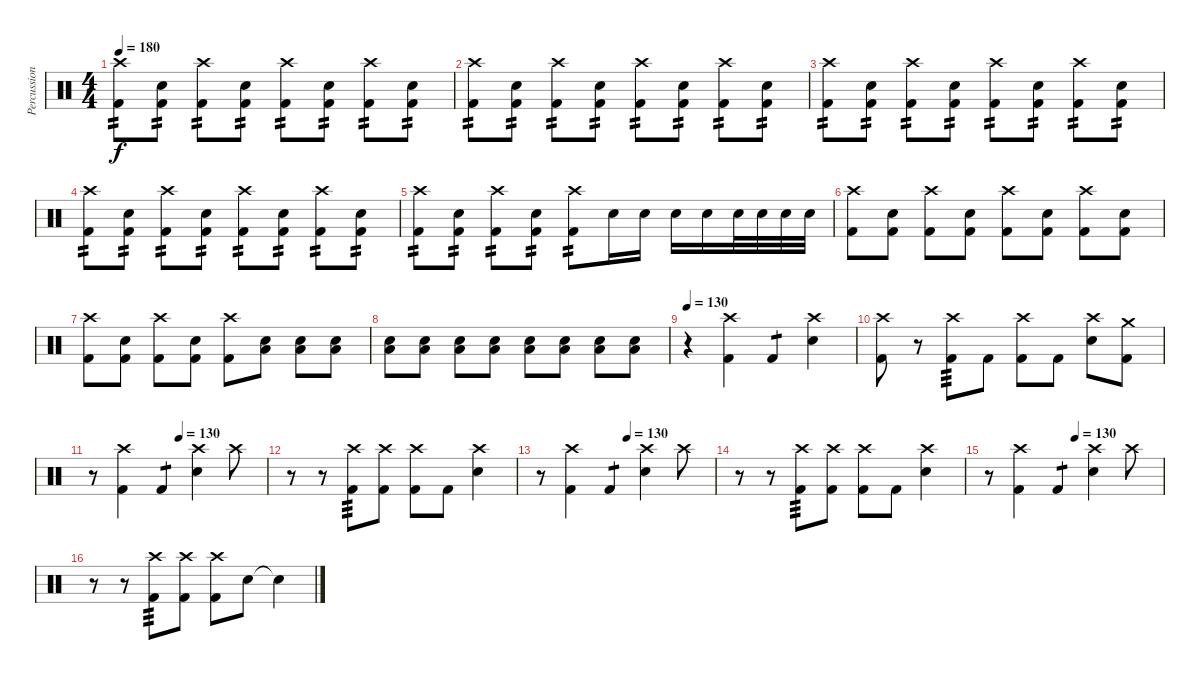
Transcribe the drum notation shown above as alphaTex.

\track ("Percussion" "Percussion") {instrument percussion}
\staff {score}
\articulation defaults
\ts (4 4)
\tempo 180
\clef neutral
\ks c
("Crash high (hit)" "Kick (hit) 2").8{tp 2 dy f} ("Electric Snare (hit)" "Kick (hit) 2").8{tp 2} ("Crash high (hit)" "Kick (hit) 2").8{tp 2} ("Electric Snare (hit)" "Kick (hit) 2").8{tp 2} ("Crash high (hit)" "Kick (hit) 2").8{tp 2} ("Electric Snare (hit)" "Kick (hit) 2").8{tp 2} ("Crash high (hit)" "Kick (hit) 2").8{tp 2} ("Electric Snare (hit)" "Kick (hit) 2").8{tp 2} |
("Crash high (hit)" "Kick (hit) 2").8{tp 2} ("Electric Snare (hit)" "Kick (hit) 2").8{tp 2} ("Crash high (hit)" "Kick (hit) 2").8{tp 2} ("Electric Snare (hit)" "Kick (hit) 2").8{tp 2} ("Crash high (hit)" "Kick (hit) 2").8{tp 2} ("Electric Snare (hit)" "Kick (hit) 2").8{tp 2} ("Crash high (hit)" "Kick (hit) 2").8{tp 2} ("Electric Snare (hit)" "Kick (hit) 2").8{tp 2} |
("Crash high (hit)" "Kick (hit) 2").8{tp 2} ("Electric Snare (hit)" "Kick (hit) 2").8{tp 2} ("Crash high (hit)" "Kick (hit) 2").8{tp 2} ("Electric Snare (hit)" "Kick (hit) 2").8{tp 2} ("Crash high (hit)" "Kick (hit) 2").8{tp 2} ("Electric Snare (hit)" "Kick (hit) 2").8{tp 2} ("Crash high (hit)" "Kick (hit) 2").8{tp 2} ("Electric Snare (hit)" "Kick (hit) 2").8{tp 2} |
("Crash high (hit)" "Kick (hit) 2").8{tp 2} ("Electric Snare (hit)" "Kick (hit) 2").8{tp 2} ("Crash high (hit)" "Kick (hit) 2").8{tp 2} ("Electric Snare (hit)" "Kick (hit) 2").8{tp 2} ("Crash high (hit)" "Kick (hit) 2").8{tp 2} ("Electric Snare (hit)" "Kick (hit) 2").8{tp 2} ("Crash high (hit)" "Kick (hit) 2").8{tp 2} ("Electric Snare (hit)" "Kick (hit) 2").8{tp 2} |
("Crash high (hit)" "Kick (hit) 2").8{tp 2} ("Electric Snare (hit)" "Kick (hit) 2").8{tp 2} ("Crash high (hit)" "Kick (hit) 2").8{tp 2} ("Electric Snare (hit)" "Kick (hit) 2").8{tp 2} ("Crash high (hit)" "Kick (hit) 2").8{tp 2} "Electric Snare (hit)".16 "Electric Snare (hit)".16 "Electric Snare (hit)".16 "Electric Snare (hit)".16 "Electric Snare (hit)".32 "Electric Snare (hit)".32 "Electric Snare (hit)".32 "Electric Snare (hit)".32 |
("Crash high (hit)" "Kick (hit) 2").8 ("Electric Snare (hit)" "Kick (hit) 2").8 ("Crash high (hit)" "Kick (hit) 2").8 ("Electric Snare (hit)" "Kick (hit) 2").8 ("Crash high (hit)" "Kick (hit) 2").8 ("Electric Snare (hit)" "Kick (hit) 2").8 ("Crash high (hit)" "Kick (hit) 2").8 ("Electric Snare (hit)" "Kick (hit) 2").8 |
("Crash high (hit)" "Kick (hit) 2").8 ("Electric Snare (hit)" "Kick (hit) 2").8 ("Crash high (hit)" "Kick (hit) 2").8 ("Electric Snare (hit)" "Kick (hit) 2").8 ("Crash high (hit)" "Kick (hit) 2").8 ("Electric Snare (hit)" "Low Floor Tom (hit)").8 ("Electric Snare (hit)" "Low Floor Tom (hit)").8 ("Electric Snare (hit)" "Low Floor Tom (hit)").8 |
("Electric Snare (hit)" "Low Floor Tom (hit)").8 ("Electric Snare (hit)" "Low Floor Tom (hit)").8 ("Electric Snare (hit)" "Low Floor Tom (hit)").8 ("Electric Snare (hit)" "Low Floor Tom (hit)").8 ("Electric Snare (hit)" "Low Floor Tom (hit)").8 ("Electric Snare (hit)" "Low Floor Tom (hit)").8 ("Electric Snare (hit)" "Low Floor Tom (hit)").8 ("Electric Snare (hit)" "Low Floor Tom (hit)").8 |
\tempo 130
r.4 ("Crash high (hit)" "Kick (hit) 2").4 "Kick (hit) 2".4{tp 1} ("Crash high (hit)" "Electric Snare (hit)").4 |
("Crash high (hit)" "Kick (hit) 2").8 r.8 ("Crash high (hit)" "Kick (hit) 2").8{tp 3} "Kick (hit) 2".8 ("Crash high (hit)" "Kick (hit) 2").8 "Kick (hit) 2".8 ("Crash high (hit)" "Electric Snare (hit)").8 ("Crash medium (hit)" "Kick (hit) 2").8 |
\tempo (130 0.5)
r.8 ("Crash high (hit)" "Kick (hit) 2").4 "Kick (hit) 2".4{tp 1} ("Crash high (hit)" "Electric Snare (hit)").4 "Crash high (hit)".8 |
r.8 r.8 ("Crash high (hit)" "Kick (hit) 2").8{tp 3} ("Crash high (hit)" "Kick (hit) 2").8 ("Crash high (hit)" "Kick (hit) 2").8 "Kick (hit) 2".8 ("Crash high (hit)" "Electric Snare (hit)").4 |
\tempo (130 0.5)
r.8 ("Crash high (hit)" "Kick (hit) 2").4 "Kick (hit) 2".4{tp 1} ("Crash high (hit)" "Electric Snare (hit)").4 "Crash high (hit)".8 |
r.8 r.8 ("Crash high (hit)" "Kick (hit) 2").8{tp 3} ("Crash high (hit)" "Kick (hit) 2").8 ("Crash high (hit)" "Kick (hit) 2").8 "Kick (hit) 2".8 ("Crash high (hit)" "Electric Snare (hit)").4 |
\tempo (130 0.5)
r.8 ("Crash high (hit)" "Kick (hit) 2").4 "Kick (hit) 2".4{tp 1} ("Crash high (hit)" "Electric Snare (hit)").4 "Crash high (hit)".8 |
r.8 r.8 ("Crash high (hit)" "Kick (hit) 2").8{tp 3} ("Crash high (hit)" "Kick (hit) 2").8 ("Crash high (hit)" "Kick (hit) 2").8 "Electric Snare (hit)".8 "Snare (hit)"{t}.4
